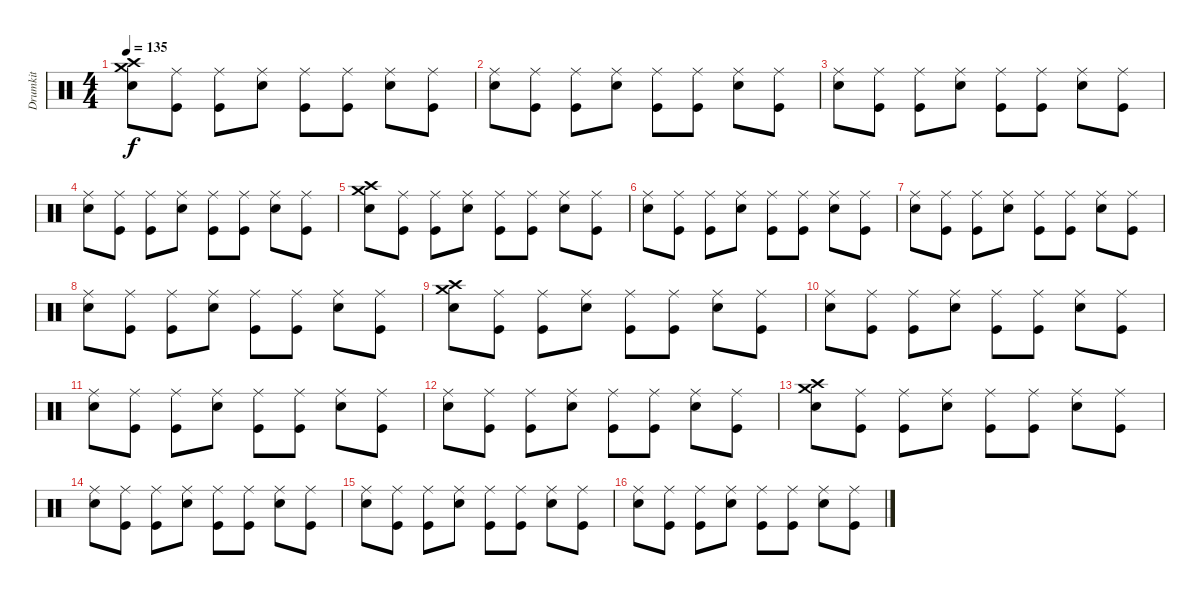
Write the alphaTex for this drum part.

\track ("Drumkit" "Drumkit") {instrument percussion}
\staff {score}
\articulation defaults
\ts (4 4)
\tempo 135
\clef neutral
\ks c
("Crash medium (hit)" "Crash high (hit)" "Snare (hit) 2").8{dy f} ("Ride (middle)" "Kick (hit)").8 ("Ride (middle)" "Kick (hit)").8 ("Ride (middle)" "Snare (hit) 2").8 ("Ride (middle)" "Kick (hit)").8 ("Ride (middle)" "Kick (hit)").8 ("Ride (middle)" "Snare (hit) 2").8 ("Ride (middle)" "Kick (hit)").8 |
("Ride (middle)" "Snare (hit) 2").8 ("Ride (middle)" "Kick (hit)").8 ("Ride (middle)" "Kick (hit)").8 ("Ride (middle)" "Snare (hit) 2").8 ("Ride (middle)" "Kick (hit)").8 ("Ride (middle)" "Kick (hit)").8 ("Ride (middle)" "Snare (hit) 2").8 ("Ride (middle)" "Kick (hit)").8 |
("Ride (middle)" "Snare (hit) 2").8 ("Ride (middle)" "Kick (hit)").8 ("Ride (middle)" "Kick (hit)").8 ("Ride (middle)" "Snare (hit) 2").8 ("Ride (middle)" "Kick (hit)").8 ("Ride (middle)" "Kick (hit)").8 ("Ride (middle)" "Snare (hit) 2").8 ("Ride (middle)" "Kick (hit)").8 |
("Ride (middle)" "Snare (hit) 2").8 ("Ride (middle)" "Kick (hit)").8 ("Ride (middle)" "Kick (hit)").8 ("Ride (middle)" "Snare (hit) 2").8 ("Ride (middle)" "Kick (hit)").8 ("Ride (middle)" "Kick (hit)").8 ("Ride (middle)" "Snare (hit) 2").8 ("Ride (middle)" "Kick (hit)").8 |
("Crash medium (hit)" "Crash high (hit)" "Snare (hit) 2").8 ("Ride (middle)" "Kick (hit)").8 ("Ride (middle)" "Kick (hit)").8 ("Ride (middle)" "Snare (hit) 2").8 ("Ride (middle)" "Kick (hit)").8 ("Ride (middle)" "Kick (hit)").8 ("Ride (middle)" "Snare (hit) 2").8 ("Ride (middle)" "Kick (hit)").8 |
("Ride (middle)" "Snare (hit) 2").8 ("Ride (middle)" "Kick (hit)").8 ("Ride (middle)" "Kick (hit)").8 ("Ride (middle)" "Snare (hit) 2").8 ("Ride (middle)" "Kick (hit)").8 ("Ride (middle)" "Kick (hit)").8 ("Ride (middle)" "Snare (hit) 2").8 ("Ride (middle)" "Kick (hit)").8 |
("Ride (middle)" "Snare (hit) 2").8 ("Ride (middle)" "Kick (hit)").8 ("Ride (middle)" "Kick (hit)").8 ("Ride (middle)" "Snare (hit) 2").8 ("Ride (middle)" "Kick (hit)").8 ("Ride (middle)" "Kick (hit)").8 ("Ride (middle)" "Snare (hit) 2").8 ("Ride (middle)" "Kick (hit)").8 |
("Ride (middle)" "Snare (hit) 2").8 ("Ride (middle)" "Kick (hit)").8 ("Ride (middle)" "Kick (hit)").8 ("Ride (middle)" "Snare (hit) 2").8 ("Ride (middle)" "Kick (hit)").8 ("Ride (middle)" "Kick (hit)").8 ("Ride (middle)" "Snare (hit) 2").8 ("Ride (middle)" "Kick (hit)").8 |
("Crash medium (hit)" "Crash high (hit)" "Snare (hit) 2").8 ("Ride (middle)" "Kick (hit)").8 ("Ride (middle)" "Kick (hit)").8 ("Ride (middle)" "Snare (hit) 2").8 ("Ride (middle)" "Kick (hit)").8 ("Ride (middle)" "Kick (hit)").8 ("Ride (middle)" "Snare (hit) 2").8 ("Ride (middle)" "Kick (hit)").8 |
("Ride (middle)" "Snare (hit) 2").8 ("Ride (middle)" "Kick (hit)").8 ("Ride (middle)" "Kick (hit)").8 ("Ride (middle)" "Snare (hit) 2").8 ("Ride (middle)" "Kick (hit)").8 ("Ride (middle)" "Kick (hit)").8 ("Ride (middle)" "Snare (hit) 2").8 ("Ride (middle)" "Kick (hit)").8 |
("Ride (middle)" "Snare (hit) 2").8 ("Ride (middle)" "Kick (hit)").8 ("Ride (middle)" "Kick (hit)").8 ("Ride (middle)" "Snare (hit) 2").8 ("Ride (middle)" "Kick (hit)").8 ("Ride (middle)" "Kick (hit)").8 ("Ride (middle)" "Snare (hit) 2").8 ("Ride (middle)" "Kick (hit)").8 |
("Ride (middle)" "Snare (hit) 2").8 ("Ride (middle)" "Kick (hit)").8 ("Ride (middle)" "Kick (hit)").8 ("Ride (middle)" "Snare (hit) 2").8 ("Ride (middle)" "Kick (hit)").8 ("Ride (middle)" "Kick (hit)").8 ("Ride (middle)" "Snare (hit) 2").8 ("Ride (middle)" "Kick (hit)").8 |
("Crash medium (hit)" "Crash high (hit)" "Snare (hit) 2").8 ("Ride (middle)" "Kick (hit)").8 ("Ride (middle)" "Kick (hit)").8 ("Ride (middle)" "Snare (hit) 2").8 ("Ride (middle)" "Kick (hit)").8 ("Ride (middle)" "Kick (hit)").8 ("Ride (middle)" "Snare (hit) 2").8 ("Ride (middle)" "Kick (hit)").8 |
("Ride (middle)" "Snare (hit) 2").8 ("Ride (middle)" "Kick (hit)").8 ("Ride (middle)" "Kick (hit)").8 ("Ride (middle)" "Snare (hit) 2").8 ("Ride (middle)" "Kick (hit)").8 ("Ride (middle)" "Kick (hit)").8 ("Ride (middle)" "Snare (hit) 2").8 ("Ride (middle)" "Kick (hit)").8 |
("Ride (middle)" "Snare (hit) 2").8 ("Ride (middle)" "Kick (hit)").8 ("Ride (middle)" "Kick (hit)").8 ("Ride (middle)" "Snare (hit) 2").8 ("Ride (middle)" "Kick (hit)").8 ("Ride (middle)" "Kick (hit)").8 ("Ride (middle)" "Snare (hit) 2").8 ("Ride (middle)" "Kick (hit)").8 |
("Ride (middle)" "Snare (hit) 2").8 ("Ride (middle)" "Kick (hit)").8 ("Ride (middle)" "Kick (hit)").8 ("Ride (middle)" "Snare (hit) 2").8 ("Ride (middle)" "Kick (hit)").8 ("Ride (middle)" "Kick (hit)").8 ("Ride (middle)" "Snare (hit) 2").8 ("Ride (middle)" "Kick (hit)").8
